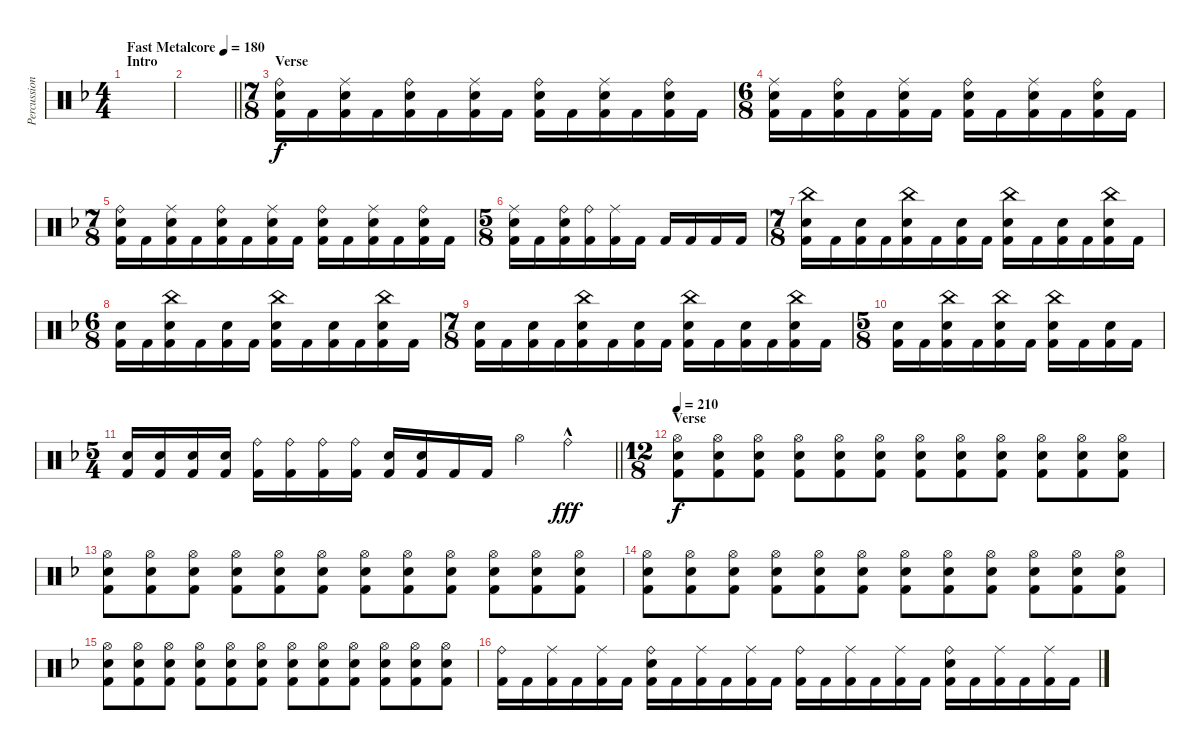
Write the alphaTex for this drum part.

\track ("Percussion" "Percussion") {instrument percussion}
\staff {score}
\articulation defaults
\ts (4 4)
\section ("" "Intro")
\tempo (180 "Fast Metalcore")
\clef neutral
\ks dminor
|
\barLineRight lightlight
|
\ts (7 8)
\section ("" "Verse")
("Ride (bell)" "Electric Snare (hit)" "Kick (hit) 2").16 "Kick (hit) 2".16 ("Ride (middle)" "Electric Snare (hit)" "Kick (hit) 2").16 "Kick (hit) 2".16 ("Ride (bell)" "Electric Snare (hit)" "Kick (hit) 2").16 "Kick (hit) 2".16 ("Ride (middle)" "Electric Snare (hit)" "Kick (hit) 2").16 "Kick (hit) 2".16 ("Ride (bell)" "Electric Snare (hit)" "Kick (hit) 2").16 "Kick (hit) 2".16 ("Ride (middle)" "Electric Snare (hit)" "Kick (hit) 2").16 "Kick (hit) 2".16 ("Ride (bell)" "Electric Snare (hit)" "Kick (hit) 2").16 "Kick (hit) 2".16 |
\ts (6 8)
("Ride (middle)" "Electric Snare (hit)" "Kick (hit) 2").16 "Kick (hit) 2".16 ("Ride (bell)" "Electric Snare (hit)" "Kick (hit) 2").16 "Kick (hit) 2".16 ("Ride (middle)" "Electric Snare (hit)" "Kick (hit) 2").16 "Kick (hit) 2".16 ("Ride (bell)" "Electric Snare (hit)" "Kick (hit) 2").16 "Kick (hit) 2".16 ("Ride (middle)" "Electric Snare (hit)" "Kick (hit) 2").16 "Kick (hit) 2".16 ("Ride (bell)" "Electric Snare (hit)" "Kick (hit) 2").16 "Kick (hit) 2".16 |
\ts (7 8)
("Ride (bell)" "Electric Snare (hit)" "Kick (hit) 2").16 "Kick (hit) 2".16 ("Ride (middle)" "Electric Snare (hit)" "Kick (hit) 2").16 "Kick (hit) 2".16 ("Ride (bell)" "Electric Snare (hit)" "Kick (hit) 2").16 "Kick (hit) 2".16 ("Ride (middle)" "Electric Snare (hit)" "Kick (hit) 2").16 "Kick (hit) 2".16 ("Ride (bell)" "Electric Snare (hit)" "Kick (hit) 2").16 "Kick (hit) 2".16 ("Ride (middle)" "Electric Snare (hit)" "Kick (hit) 2").16 "Kick (hit) 2".16 ("Ride (bell)" "Electric Snare (hit)" "Kick (hit) 2").16 "Kick (hit) 2".16 |
\ts (5 8)
("Ride (middle)" "Electric Snare (hit)" "Kick (hit) 2").16 "Kick (hit) 2".16 ("Ride (bell)" "Electric Snare (hit)" "Kick (hit) 2").16 ("Ride (bell)" "Kick (hit) 2").16 ("Ride (middle)" "Kick (hit) 2").16 "Kick (hit) 2".16 "Kick (hit) 2".16 "Kick (hit) 2".16 "Kick (hit) 2".16 "Kick (hit) 2".16 |
\ts (7 8)
("China (hit)" "Electric Snare (hit)" "Kick (hit) 2").16 "Kick (hit) 2".16 ("Electric Snare (hit)" "Kick (hit) 2").16 "Kick (hit) 2".16 ("China (hit)" "Electric Snare (hit)" "Kick (hit) 2").16 "Kick (hit) 2".16 ("Electric Snare (hit)" "Kick (hit) 2").16 "Kick (hit) 2".16 ("China (hit)" "Electric Snare (hit)" "Kick (hit) 2").16 "Kick (hit) 2".16 ("Electric Snare (hit)" "Kick (hit) 2").16 "Kick (hit) 2".16 ("China (hit)" "Electric Snare (hit)" "Kick (hit) 2").16 "Kick (hit) 2".16 |
\ts (6 8)
("Electric Snare (hit)" "Kick (hit) 2").16 "Kick (hit) 2".16 ("China (hit)" "Electric Snare (hit)" "Kick (hit) 2").16 "Kick (hit) 2".16 ("Electric Snare (hit)" "Kick (hit) 2").16 "Kick (hit) 2".16 ("China (hit)" "Electric Snare (hit)" "Kick (hit) 2").16 "Kick (hit) 2".16 ("Electric Snare (hit)" "Kick (hit) 2").16 "Kick (hit) 2".16 ("China (hit)" "Electric Snare (hit)" "Kick (hit) 2").16 "Kick (hit) 2".16 |
\ts (7 8)
("Electric Snare (hit)" "Kick (hit) 2").16 "Kick (hit) 2".16 ("Electric Snare (hit)" "Kick (hit) 2").16 "Kick (hit) 2".16 ("China (hit)" "Electric Snare (hit)" "Kick (hit) 2").16 "Kick (hit) 2".16 ("Electric Snare (hit)" "Kick (hit) 2").16 "Kick (hit) 2".16 ("China (hit)" "Electric Snare (hit)" "Kick (hit) 2").16 "Kick (hit) 2".16 ("Electric Snare (hit)" "Kick (hit) 2").16 "Kick (hit) 2".16 ("China (hit)" "Electric Snare (hit)" "Kick (hit) 2").16 "Kick (hit) 2".16 |
\ts (5 8)
("Electric Snare (hit)" "Kick (hit) 2").16 "Kick (hit) 2".16 ("China (hit)" "Electric Snare (hit)" "Kick (hit) 2").16 "Kick (hit) 2".16 ("China (hit)" "Electric Snare (hit)" "Kick (hit) 2").16 "Kick (hit) 2".16 ("China (hit)" "Electric Snare (hit)" "Kick (hit) 2").16 "Kick (hit) 2".16 ("Electric Snare (hit)" "Kick (hit) 2").16 "Kick (hit) 2".16 |
\ts (5 4)
\barLineRight lightlight
("Electric Snare (hit)" "Kick (hit) 2").16 ("Electric Snare (hit)" "Kick (hit) 2").16 ("Electric Snare (hit)" "Kick (hit) 2").16 ("Electric Snare (hit)" "Kick (hit) 2").16 ("Ride (bell)" "Kick (hit) 2").16 ("Ride (bell)" "Kick (hit) 2").16 ("Ride (bell)" "Kick (hit) 2").16 ("Ride (bell)" "Kick (hit) 2").16 ("Electric Snare (hit)" "Kick (hit) 2").16 ("Electric Snare (hit)" "Kick (hit) 2").16 "Kick (hit) 2".16 "Kick (hit) 2".16 "Hi-Hat (open)".4 "Ride (bell)"{hac}.4{dy fff} |
\ts (12 8)
\section ("" "Verse")
\tempo 210
("Hi-Hat (open)" "Electric Snare (hit)" "Kick (hit) 2").8{dy f} ("Hi-Hat (open)" "Electric Snare (hit)" "Kick (hit) 2").8 ("Hi-Hat (open)" "Electric Snare (hit)" "Kick (hit) 2").8 ("Hi-Hat (open)" "Electric Snare (hit)" "Kick (hit) 2").8 ("Hi-Hat (open)" "Electric Snare (hit)" "Kick (hit) 2").8 ("Hi-Hat (open)" "Electric Snare (hit)" "Kick (hit) 2").8 ("Hi-Hat (open)" "Electric Snare (hit)" "Kick (hit) 2").8 ("Hi-Hat (open)" "Electric Snare (hit)" "Kick (hit) 2").8 ("Hi-Hat (open)" "Electric Snare (hit)" "Kick (hit) 2").8 ("Hi-Hat (open)" "Electric Snare (hit)" "Kick (hit) 2").8 ("Hi-Hat (open)" "Electric Snare (hit)" "Kick (hit) 2").8 ("Hi-Hat (open)" "Electric Snare (hit)" "Kick (hit) 2").8 |
("Hi-Hat (open)" "Electric Snare (hit)" "Kick (hit) 2").8 ("Hi-Hat (open)" "Electric Snare (hit)" "Kick (hit) 2").8 ("Hi-Hat (open)" "Electric Snare (hit)" "Kick (hit) 2").8 ("Hi-Hat (open)" "Electric Snare (hit)" "Kick (hit) 2").8 ("Hi-Hat (open)" "Electric Snare (hit)" "Kick (hit) 2").8 ("Hi-Hat (open)" "Electric Snare (hit)" "Kick (hit) 2").8 ("Hi-Hat (open)" "Electric Snare (hit)" "Kick (hit) 2").8 ("Hi-Hat (open)" "Electric Snare (hit)" "Kick (hit) 2").8 ("Hi-Hat (open)" "Electric Snare (hit)" "Kick (hit) 2").8 ("Hi-Hat (open)" "Electric Snare (hit)" "Kick (hit) 2").8 ("Hi-Hat (open)" "Electric Snare (hit)" "Kick (hit) 2").8 ("Hi-Hat (open)" "Electric Snare (hit)" "Kick (hit) 2").8 |
("Hi-Hat (open)" "Electric Snare (hit)" "Kick (hit) 2").8 ("Hi-Hat (open)" "Electric Snare (hit)" "Kick (hit) 2").8 ("Hi-Hat (open)" "Electric Snare (hit)" "Kick (hit) 2").8 ("Hi-Hat (open)" "Electric Snare (hit)" "Kick (hit) 2").8 ("Hi-Hat (open)" "Electric Snare (hit)" "Kick (hit) 2").8 ("Hi-Hat (open)" "Electric Snare (hit)" "Kick (hit) 2").8 ("Hi-Hat (open)" "Electric Snare (hit)" "Kick (hit) 2").8 ("Hi-Hat (open)" "Electric Snare (hit)" "Kick (hit) 2").8 ("Hi-Hat (open)" "Electric Snare (hit)" "Kick (hit) 2").8 ("Hi-Hat (open)" "Electric Snare (hit)" "Kick (hit) 2").8 ("Hi-Hat (open)" "Electric Snare (hit)" "Kick (hit) 2").8 ("Hi-Hat (open)" "Electric Snare (hit)" "Kick (hit) 2").8 |
("Hi-Hat (open)" "Electric Snare (hit)" "Kick (hit) 2").8 ("Hi-Hat (open)" "Electric Snare (hit)" "Kick (hit) 2").8 ("Hi-Hat (open)" "Electric Snare (hit)" "Kick (hit) 2").8 ("Hi-Hat (open)" "Electric Snare (hit)" "Kick (hit) 2").8 ("Hi-Hat (open)" "Electric Snare (hit)" "Kick (hit) 2").8 ("Hi-Hat (open)" "Electric Snare (hit)" "Kick (hit) 2").8 ("Hi-Hat (open)" "Electric Snare (hit)" "Kick (hit) 2").8 ("Hi-Hat (open)" "Electric Snare (hit)" "Kick (hit) 2").8 ("Hi-Hat (open)" "Electric Snare (hit)" "Kick (hit) 2").8 ("Hi-Hat (open)" "Electric Snare (hit)" "Kick (hit) 2").8 ("Hi-Hat (open)" "Electric Snare (hit)" "Kick (hit) 2").8 ("Hi-Hat (open)" "Electric Snare (hit)" "Kick (hit) 2").8 |
("Ride (bell)" "Kick (hit) 2").16 "Kick (hit) 2".16 ("Ride (middle)" "Kick (hit) 2").16 "Kick (hit) 2".16 ("Ride (middle)" "Kick (hit) 2").16 "Kick (hit) 2".16 ("Ride (bell)" "Electric Snare (hit)" "Kick (hit) 2").16 "Kick (hit) 2".16 ("Ride (middle)" "Kick (hit) 2").16 "Kick (hit) 2".16 ("Ride (middle)" "Kick (hit) 2").16 "Kick (hit) 2".16 ("Ride (bell)" "Kick (hit) 2").16 "Kick (hit) 2".16 ("Ride (middle)" "Kick (hit) 2").16 "Kick (hit) 2".16 ("Ride (middle)" "Kick (hit) 2").16 "Kick (hit) 2".16 ("Ride (bell)" "Electric Snare (hit)" "Kick (hit) 2").16 "Kick (hit) 2".16 ("Ride (middle)" "Kick (hit) 2").16 "Kick (hit) 2".16 ("Ride (middle)" "Kick (hit) 2").16 "Kick (hit) 2".16
